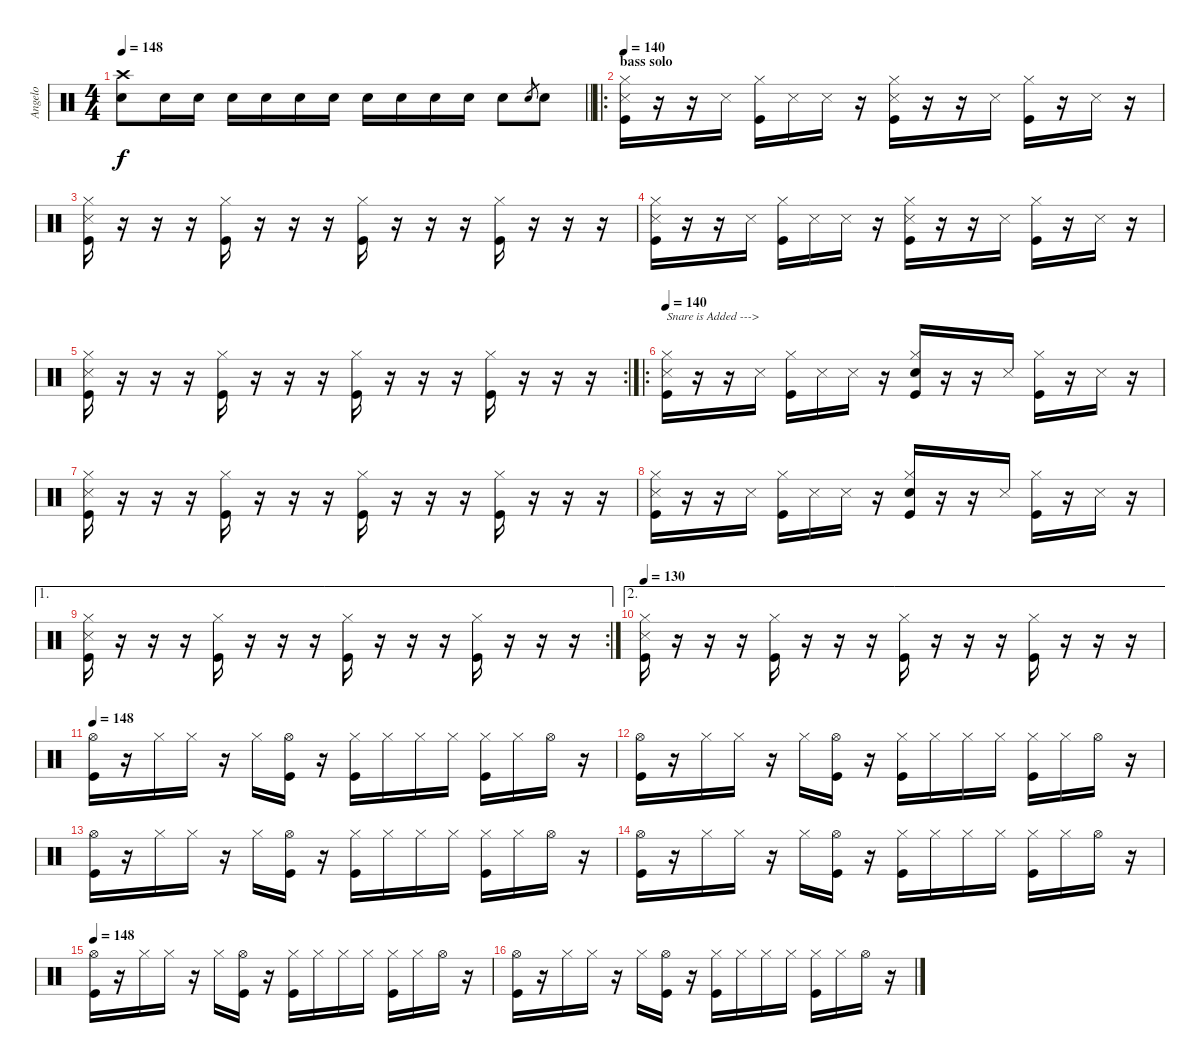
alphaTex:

\track ("Angelo" "Angelo") {instrument percussion}
\staff {score}
\articulation defaults
\ts (4 4)
\tempo 148
\clef neutral
\barLineRight lightlight
\ks c
("Crash high (hit)" "Snare (hit) 2").8{dy f} "Snare (hit) 2".16 "Snare (hit) 2".16 "Snare (hit) 2".16 "Snare (hit) 2".16 "Snare (hit) 2".16 "Snare (hit) 2".16 "Snare (hit) 2".16 "Snare (hit) 2".16 "Snare (hit) 2".16 "Snare (hit) 2".16 "Snare (hit) 2".8 "Snare (hit) 2".8{gr} "Snare (hit) 2".8 |
\ro
\section ("" "bass solo")
\tempo 140
("Hi-Hat (closed)" "Snare (side stick) 3" "Kick (hit)").16 r.16 r.16 "Snare (side stick) 3".16 ("Hi-Hat (closed)" "Kick (hit)").16 "Snare (side stick) 3".16 "Snare (side stick) 3".16 r.16 ("Hi-Hat (closed)" "Snare (side stick) 3" "Kick (hit)").16 r.16 r.16 "Snare (side stick) 3".16 ("Hi-Hat (closed)" "Kick (hit)").16 r.16 "Snare (side stick) 3".16 r.16 |
("Hi-Hat (closed)" "Snare (side stick) 3" "Kick (hit)").16 r.16 r.16 r.16 ("Hi-Hat (closed)" "Kick (hit)").16 r.16 r.16 r.16 ("Hi-Hat (closed)" "Kick (hit)").16 r.16 r.16 r.16 ("Hi-Hat (closed)" "Kick (hit)").16 r.16 r.16 r.16 |
("Hi-Hat (closed)" "Snare (side stick) 3" "Kick (hit)").16 r.16 r.16 "Snare (side stick) 3".16 ("Hi-Hat (closed)" "Kick (hit)").16 "Snare (side stick) 3".16 "Snare (side stick) 3".16 r.16 ("Hi-Hat (closed)" "Snare (side stick) 3" "Kick (hit)").16 r.16 r.16 "Snare (side stick) 3".16 ("Hi-Hat (closed)" "Kick (hit)").16 r.16 "Snare (side stick) 3".16 r.16 |
\rc 2
("Hi-Hat (closed)" "Snare (side stick) 3" "Kick (hit)").16 r.16 r.16 r.16 ("Hi-Hat (closed)" "Kick (hit)").16 r.16 r.16 r.16 ("Hi-Hat (closed)" "Kick (hit)").16 r.16 r.16 r.16 ("Hi-Hat (closed)" "Kick (hit)").16 r.16 r.16 r.16 |
\ro
\tempo 140
("Hi-Hat (closed)" "Snare (side stick) 3" "Kick (hit)").16{txt "Snare is Added --->"} r.16 r.16 "Snare (side stick) 3".16 ("Hi-Hat (closed)" "Kick (hit)").16 "Snare (side stick) 3".16 "Snare (side stick) 3".16 r.16 ("Snare (hit) 2" "Hi-Hat (closed)" "Kick (hit)").16 r.16 r.16 "Snare (side stick) 3".16 ("Hi-Hat (closed)" "Kick (hit)").16 r.16 "Snare (side stick) 3".16 r.16 |
("Hi-Hat (closed)" "Snare (side stick) 3" "Kick (hit)").16 r.16 r.16 r.16 ("Hi-Hat (closed)" "Kick (hit)").16 r.16 r.16 r.16 ("Hi-Hat (closed)" "Kick (hit)").16 r.16 r.16 r.16 ("Hi-Hat (closed)" "Kick (hit)").16 r.16 r.16 r.16 |
("Hi-Hat (closed)" "Snare (side stick) 3" "Kick (hit)").16 r.16 r.16 "Snare (side stick) 3".16 ("Hi-Hat (closed)" "Kick (hit)").16 "Snare (side stick) 3".16 "Snare (side stick) 3".16 r.16 ("Snare (hit) 2" "Hi-Hat (closed)" "Kick (hit)").16 r.16 r.16 "Snare (side stick) 3".16 ("Hi-Hat (closed)" "Kick (hit)").16 r.16 "Snare (side stick) 3".16 r.16 |
\ae 1
\rc 2
("Hi-Hat (closed)" "Snare (side stick) 3" "Kick (hit)").16 r.16 r.16 r.16 ("Hi-Hat (closed)" "Kick (hit)").16 r.16 r.16 r.16 ("Hi-Hat (closed)" "Kick (hit)").16 r.16 r.16 r.16 ("Hi-Hat (closed)" "Kick (hit)").16 r.16 r.16 r.16 |
\ae 2
\tempo 130
("Hi-Hat (closed)" "Snare (side stick) 3" "Kick (hit)").16 r.16 r.16 r.16 ("Hi-Hat (closed)" "Kick (hit)").16 r.16 r.16 r.16 ("Hi-Hat (closed)" "Kick (hit)").16 r.16 r.16 r.16 ("Hi-Hat (closed)" "Kick (hit)").16 r.16 r.16 r.16 |
\tempo 148
("Hi-Hat (open)" "Kick (hit)").16 r.16 "Hi-Hat (closed)".16 "Hi-Hat (closed)".16 r.16 "Hi-Hat (closed)".16 ("Hi-Hat (open)" "Kick (hit)").16 r.16 ("Hi-Hat (closed)" "Kick (hit)").16 "Hi-Hat (closed)".16 "Hi-Hat (closed)".16 "Hi-Hat (closed)".16 ("Hi-Hat (closed)" "Kick (hit)").16 "Hi-Hat (closed)".16 "Hi-Hat (open)".16 r.16 |
("Hi-Hat (open)" "Kick (hit)").16 r.16 "Hi-Hat (closed)".16 "Hi-Hat (closed)".16 r.16 "Hi-Hat (closed)".16 ("Hi-Hat (open)" "Kick (hit)").16 r.16 ("Hi-Hat (closed)" "Kick (hit)").16 "Hi-Hat (closed)".16 "Hi-Hat (closed)".16 "Hi-Hat (closed)".16 ("Hi-Hat (closed)" "Kick (hit)").16 "Hi-Hat (closed)".16 "Hi-Hat (open)".16 r.16 |
("Hi-Hat (open)" "Kick (hit)").16 r.16 "Hi-Hat (closed)".16 "Hi-Hat (closed)".16 r.16 "Hi-Hat (closed)".16 ("Hi-Hat (open)" "Kick (hit)").16 r.16 ("Hi-Hat (closed)" "Kick (hit)").16 "Hi-Hat (closed)".16 "Hi-Hat (closed)".16 "Hi-Hat (closed)".16 ("Hi-Hat (closed)" "Kick (hit)").16 "Hi-Hat (closed)".16 "Hi-Hat (open)".16 r.16 |
("Hi-Hat (open)" "Kick (hit)").16 r.16 "Hi-Hat (closed)".16 "Hi-Hat (closed)".16 r.16 "Hi-Hat (closed)".16 ("Hi-Hat (open)" "Kick (hit)").16 r.16 ("Hi-Hat (closed)" "Kick (hit)").16 "Hi-Hat (closed)".16 "Hi-Hat (closed)".16 "Hi-Hat (closed)".16 ("Hi-Hat (closed)" "Kick (hit)").16 "Hi-Hat (closed)".16 "Hi-Hat (open)".16 r.16 |
\tempo 148
("Hi-Hat (open)" "Kick (hit)").16 r.16 "Hi-Hat (closed)".16 "Hi-Hat (closed)".16 r.16 "Hi-Hat (closed)".16 ("Hi-Hat (open)" "Kick (hit)").16 r.16 ("Hi-Hat (closed)" "Kick (hit)").16 "Hi-Hat (closed)".16 "Hi-Hat (closed)".16 "Hi-Hat (closed)".16 ("Hi-Hat (closed)" "Kick (hit)").16 "Hi-Hat (closed)".16 "Hi-Hat (open)".16 r.16 |
("Hi-Hat (open)" "Kick (hit)").16 r.16 "Hi-Hat (closed)".16 "Hi-Hat (closed)".16 r.16 "Hi-Hat (closed)".16 ("Hi-Hat (open)" "Kick (hit)").16 r.16 ("Hi-Hat (closed)" "Kick (hit)").16 "Hi-Hat (closed)".16 "Hi-Hat (closed)".16 "Hi-Hat (closed)".16 ("Hi-Hat (closed)" "Kick (hit)").16 "Hi-Hat (closed)".16 "Hi-Hat (open)".16 r.16
